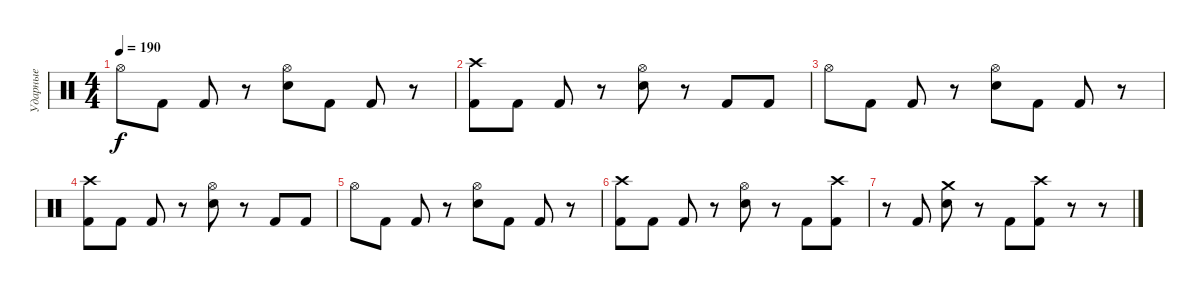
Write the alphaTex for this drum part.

\track ("Ударные" "Ударные") {instrument percussion}
\staff {score}
\articulation defaults
\ts (4 4)
\tempo 190
\clef neutral
\ks c "Hi-Hat (open)".8{dy f} "Kick (hit) 2".8 "Kick (hit) 2".8
r.8 ("Hi-Hat (open)" "Electric Snare (hit)").8 "Kick (hit) 2".8 "Kick (hit) 2".8 r.8 |
("Crash high (hit)" "Kick (hit) 2").8 "Kick (hit) 2".8 "Kick (hit) 2".8 r.8 ("Hi-Hat (open)" "Electric Snare (hit)").8 r.8 "Kick (hit) 2".8 "Kick (hit) 2".8 |
"Hi-Hat (open)".8 "Kick (hit) 2".8 "Kick (hit) 2".8 r.8 ("Hi-Hat (open)" "Electric Snare (hit)").8 "Kick (hit) 2".8 "Kick (hit) 2".8 r.8 |
("Crash high (hit)" "Kick (hit) 2").8 "Kick (hit) 2".8 "Kick (hit) 2".8 r.8 ("Hi-Hat (open)" "Electric Snare (hit)").8 r.8 "Kick (hit) 2".8 "Kick (hit) 2".8 |
"Hi-Hat (open)".8 "Kick (hit) 2".8 "Kick (hit) 2".8 r.8 ("Hi-Hat (open)" "Electric Snare (hit)").8 "Kick (hit) 2".8 "Kick (hit) 2".8 r.8 |
("Crash high (hit)" "Kick (hit) 2").8 "Kick (hit) 2".8 "Kick (hit) 2".8 r.8 ("Hi-Hat (open)" "Electric Snare (hit)").8 r.8 "Kick (hit) 2".8 ("Crash high (hit)" "Kick (hit) 2").8 |
r.8 "Kick (hit) 2".8 ("Crash medium (hit)" "Electric Snare (hit)").8 r.8 "Kick (hit) 2".8 ("Crash high (hit)" "Kick (hit) 2").8 r.8 r.8
